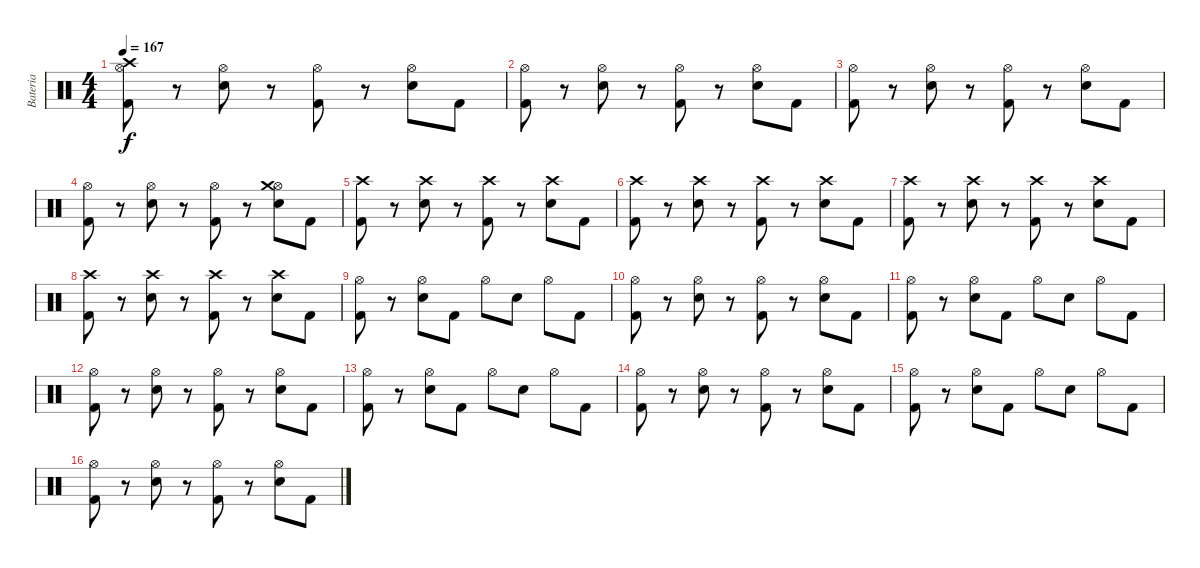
\track ("Bateria" "Bateria") {instrument percussion}
\staff {score}
\articulation defaults
\ts (4 4)
\tempo 167
\clef neutral
\ks c
("Kick (hit) 2" "Hi-Hat (open)" "Crash high (hit)").8{dy f} r.8 ("Snare (hit) 2" "Hi-Hat (open)").8 r.8 ("Kick (hit) 2" "Hi-Hat (open)").8 r.8 ("Snare (hit) 2" "Hi-Hat (open)").8 "Kick (hit) 2".8 |
("Kick (hit) 2" "Hi-Hat (open)").8 r.8 ("Snare (hit) 2" "Hi-Hat (open)").8 r.8 ("Kick (hit) 2" "Hi-Hat (open)").8 r.8 ("Snare (hit) 2" "Hi-Hat (open)").8 "Kick (hit) 2".8 |
("Kick (hit) 2" "Hi-Hat (open)").8 r.8 ("Snare (hit) 2" "Hi-Hat (open)").8 r.8 ("Kick (hit) 2" "Hi-Hat (open)").8 r.8 ("Snare (hit) 2" "Hi-Hat (open)").8 "Kick (hit) 2".8 |
("Kick (hit) 2" "Hi-Hat (open)").8 r.8 ("Snare (hit) 2" "Hi-Hat (open)").8 r.8 ("Kick (hit) 2" "Hi-Hat (open)").8 r.8 ("Snare (hit) 2" "Hi-Hat (open)" "Crash medium (hit)").8 "Kick (hit) 2".8 |
("Kick (hit) 2" "Crash high (hit)").8 r.8 ("Snare (hit) 2" "Crash high (hit)").8 r.8 ("Kick (hit) 2" "Crash high (hit)").8 r.8 ("Snare (hit) 2" "Crash high (hit)").8 "Kick (hit) 2".8 |
("Kick (hit) 2" "Crash high (hit)").8 r.8 ("Snare (hit) 2" "Crash high (hit)").8 r.8 ("Kick (hit) 2" "Crash high (hit)").8 r.8 ("Snare (hit) 2" "Crash high (hit)").8 "Kick (hit) 2".8 |
("Kick (hit) 2" "Crash high (hit)").8 r.8 ("Snare (hit) 2" "Crash high (hit)").8 r.8 ("Kick (hit) 2" "Crash high (hit)").8 r.8 ("Snare (hit) 2" "Crash high (hit)").8 "Kick (hit) 2".8 |
("Kick (hit) 2" "Crash high (hit)").8 r.8 ("Snare (hit) 2" "Crash high (hit)").8 r.8 ("Kick (hit) 2" "Crash high (hit)").8 r.8 ("Snare (hit) 2" "Crash high (hit)").8 "Kick (hit) 2".8 |
("Kick (hit) 2" "Hi-Hat (open)").8 r.8 ("Snare (hit) 2" "Hi-Hat (open)").8 "Kick (hit) 2".8 "Hi-Hat (open)".8 "Snare (hit) 2".8 "Hi-Hat (open)".8 "Kick (hit) 2".8 |
("Kick (hit) 2" "Hi-Hat (open)").8 r.8 ("Snare (hit) 2" "Hi-Hat (open)").8 r.8 ("Kick (hit) 2" "Hi-Hat (open)").8 r.8 ("Snare (hit) 2" "Hi-Hat (open)").8 "Kick (hit) 2".8 |
("Kick (hit) 2" "Hi-Hat (open)").8 r.8 ("Snare (hit) 2" "Hi-Hat (open)").8 "Kick (hit) 2".8 "Hi-Hat (open)".8 "Snare (hit) 2".8 "Hi-Hat (open)".8 "Kick (hit) 2".8 |
("Kick (hit) 2" "Hi-Hat (open)").8 r.8 ("Snare (hit) 2" "Hi-Hat (open)").8 r.8 ("Kick (hit) 2" "Hi-Hat (open)").8 r.8 ("Snare (hit) 2" "Hi-Hat (open)").8 "Kick (hit) 2".8 |
("Kick (hit) 2" "Hi-Hat (open)").8 r.8 ("Snare (hit) 2" "Hi-Hat (open)").8 "Kick (hit) 2".8 "Hi-Hat (open)".8 "Snare (hit) 2".8 "Hi-Hat (open)".8 "Kick (hit) 2".8 |
("Kick (hit) 2" "Hi-Hat (open)").8 r.8 ("Snare (hit) 2" "Hi-Hat (open)").8 r.8 ("Kick (hit) 2" "Hi-Hat (open)").8 r.8 ("Snare (hit) 2" "Hi-Hat (open)").8 "Kick (hit) 2".8 |
("Kick (hit) 2" "Hi-Hat (open)").8 r.8 ("Snare (hit) 2" "Hi-Hat (open)").8 "Kick (hit) 2".8 "Hi-Hat (open)".8 "Snare (hit) 2".8 "Hi-Hat (open)".8 "Kick (hit) 2".8 |
("Kick (hit) 2" "Hi-Hat (open)").8 r.8 ("Snare (hit) 2" "Hi-Hat (open)").8 r.8 ("Kick (hit) 2" "Hi-Hat (open)").8 r.8 ("Snare (hit) 2" "Hi-Hat (open)").8 "Kick (hit) 2".8
